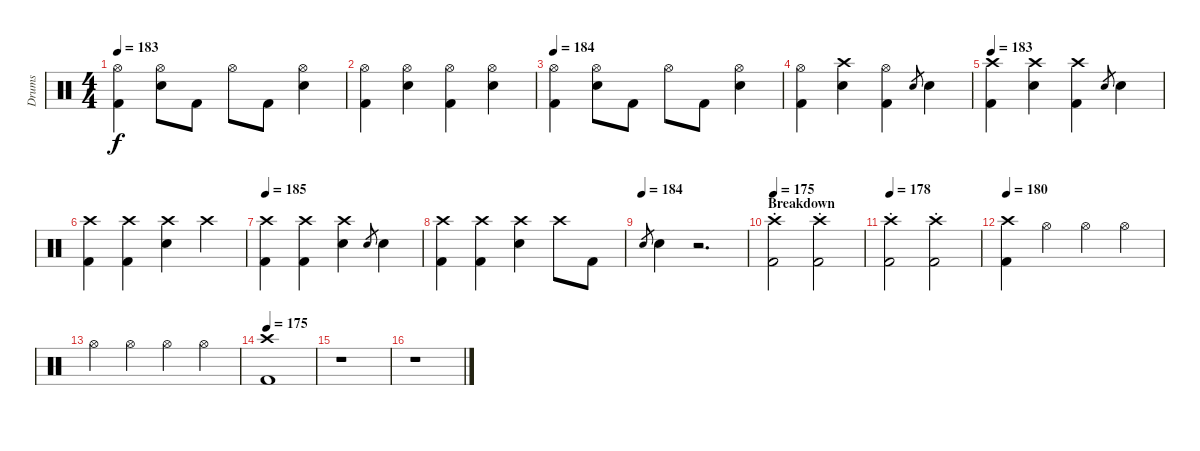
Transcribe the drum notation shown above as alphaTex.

\track ("Drums" "Drums") {instrument percussion}
\staff {score}
\articulation defaults
\ts (4 4)
\tempo 183
\clef neutral
\ks c
("Hi-Hat (open)" "Kick (hit) 2").4{dy f} ("Hi-Hat (open)" "Snare (hit) 2").8 "Kick (hit) 2".8 "Hi-Hat (open)".8 "Kick (hit) 2".8 ("Snare (hit) 2" "Hi-Hat (open)").4 |
("Kick (hit) 2" "Hi-Hat (open)").4 ("Snare (hit) 2" "Hi-Hat (open)").4 ("Hi-Hat (open)" "Kick (hit) 2").4 ("Hi-Hat (open)" "Snare (hit) 2").4 |
\tempo 184
("Hi-Hat (open)" "Kick (hit) 2").4 ("Hi-Hat (open)" "Snare (hit) 2").8 "Kick (hit) 2".8 "Hi-Hat (open)".8 "Kick (hit) 2".8 ("Snare (hit) 2" "Hi-Hat (open)").4 |
("Kick (hit) 2" "Hi-Hat (open)").4 ("Snare (hit) 2" "Crash high (hit)").4 ("Hi-Hat (open)" "Kick (hit) 2").4 "Snare (hit)".8{gr} "Snare (hit) 2".4 |
\tempo 183
("Kick (hit) 2" "Crash high (hit)").4 ("Snare (hit) 2" "Crash high (hit)").4 ("Kick (hit) 2" "Crash high (hit)").4 "Snare (hit)".8{gr} "Snare (hit) 2".4 |
("Crash high (hit)" "Kick (hit) 2").4 ("Crash high (hit)" "Kick (hit) 2").4 ("Crash high (hit)" "Snare (hit) 2").4 "Crash high (hit)".4 |
\tempo 185
("Crash high (hit)" "Kick (hit) 2").4 ("Crash high (hit)" "Kick (hit) 2").4 ("Crash high (hit)" "Snare (hit) 2").4 "Snare (hit)".8{gr} "Snare (hit) 2".4 |
("Crash high (hit)" "Kick (hit) 2").4 ("Crash high (hit)" "Kick (hit) 2").4 ("Crash high (hit)" "Snare (hit) 2").4 "Crash high (hit)".8 "Kick (hit) 2".8 |
\tempo (184)
"Snare (hit)".8{gr} "Snare (hit) 2".4 r.2{d} |
\section ("" "Breakdown")
\tempo 175
("Crash high (choke)" "Kick (hit) 2").2 ("Crash high (choke)" "Kick (hit) 2").2 |
\tempo 178
("Crash high (choke)" "Kick (hit) 2").2 ("Crash high (choke)" "Kick (hit) 2").2 |
\tempo 180
("Crash high (hit)" "Kick (hit) 2").4 "Hi-Hat (open)".4 "Hi-Hat (open)".4 "Hi-Hat (open)".4 |
"Hi-Hat (open)".4 "Hi-Hat (open)".4 "Hi-Hat (open)".4 "Hi-Hat (open)".4 |
\tempo 175
("Crash high (hit)" "Kick (hit) 2").1 |
r.1 |
r.1
